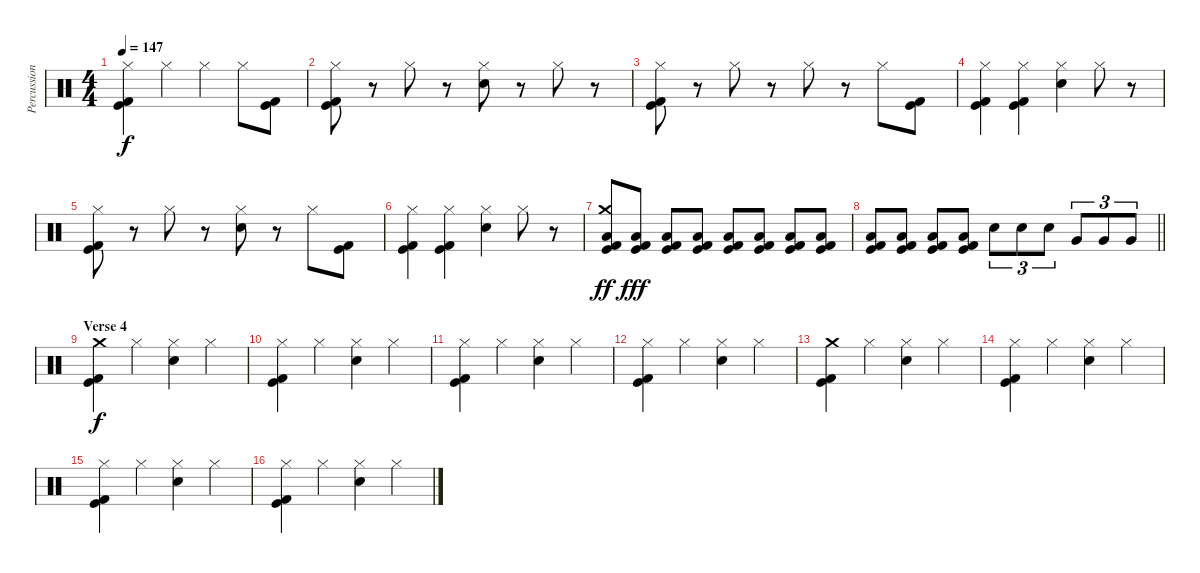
\track ("Percussion" "Percussion") {instrument percussion}
\staff {score}
\articulation defaults
\ts (4 4)
\tempo 147
\clef neutral
\ks c
("Hi-Hat (closed)" "Kick (hit) 2" "Kick (hit)").4{dy f} "Hi-Hat (closed)".4 "Hi-Hat (closed)".4 "Hi-Hat (closed)".8 ("Kick (hit) 2" "Kick (hit)").8 |
("Hi-Hat (closed)" "Kick (hit) 2" "Kick (hit)").8 r.8 "Hi-Hat (closed)".8 r.8 ("Hi-Hat (closed)" "Snare (hit) 2").8 r.8 "Hi-Hat (closed)".8 r.8 |
("Hi-Hat (closed)" "Kick (hit) 2" "Kick (hit)").8 r.8 "Hi-Hat (closed)".8 r.8 "Hi-Hat (closed)".8 r.8 "Hi-Hat (closed)".8 ("Kick (hit) 2" "Kick (hit)").8 |
("Hi-Hat (closed)" "Kick (hit) 2" "Kick (hit)").4 ("Hi-Hat (closed)" "Kick (hit) 2" "Kick (hit)").4 ("Hi-Hat (closed)" "Snare (hit) 2").4 "Hi-Hat (closed)".8 r.8 |
("Hi-Hat (closed)" "Kick (hit) 2" "Kick (hit)").8 r.8 "Hi-Hat (closed)".8 r.8 ("Hi-Hat (closed)" "Snare (hit) 2").8 r.8 "Hi-Hat (closed)".8 ("Kick (hit) 2" "Kick (hit)").8 |
("Hi-Hat (closed)" "Kick (hit) 2" "Kick (hit)").4 ("Hi-Hat (closed)" "Kick (hit) 2" "Kick (hit)").4 ("Hi-Hat (closed)" "Snare (hit) 2").4 "Hi-Hat (closed)".8 r.8 |
("Crash medium (hit)" "Low Floor Tom (hit)" "Kick (hit) 2" "Kick (hit)").8{dy ff} ("Low Floor Tom (hit)" "Kick (hit) 2" "Kick (hit)").8{dy fff} ("Low Floor Tom (hit)" "Kick (hit) 2" "Kick (hit)").8 ("Low Floor Tom (hit)" "Kick (hit) 2" "Kick (hit)").8 ("Low Floor Tom (hit)" "Kick (hit) 2" "Kick (hit)").8 ("Low Floor Tom (hit)" "Kick (hit) 2" "Kick (hit)").8 ("Low Floor Tom (hit)" "Kick (hit) 2" "Kick (hit)").8 ("Low Floor Tom (hit)" "Kick (hit) 2" "Kick (hit)").8 |
\barLineRight lightlight
("Low Floor Tom (hit)" "Kick (hit) 2" "Kick (hit)").8 ("Low Floor Tom (hit)" "Kick (hit) 2" "Kick (hit)").8 ("Low Floor Tom (hit)" "Kick (hit) 2" "Kick (hit)").8 ("Low Floor Tom (hit)" "Kick (hit) 2" "Kick (hit)").8 "Snare (hit) 2".8{tu (3 2)} "Snare (hit) 2".8{tu (3 2)} "Snare (hit) 2".8{tu (3 2)} "Very Low Tom (hit)".8{tu (3 2)} "Very Low Tom (hit)".8{tu (3 2)} "Very Low Tom (hit)".8{tu (3 2)} |
\section ("" "Verse 4")
("Crash medium (hit)" "Kick (hit) 2" "Kick (hit)").4{dy f} "Hi-Hat (closed)".4 ("Hi-Hat (closed)" "Snare (hit) 2").4 "Hi-Hat (closed)".4 |
("Hi-Hat (closed)" "Kick (hit) 2" "Kick (hit)").4 "Hi-Hat (closed)".4 ("Hi-Hat (closed)" "Snare (hit) 2").4 "Hi-Hat (closed)".4 |
("Hi-Hat (closed)" "Kick (hit) 2" "Kick (hit)").4 "Hi-Hat (closed)".4 ("Hi-Hat (closed)" "Snare (hit) 2").4 "Hi-Hat (closed)".4 |
("Hi-Hat (closed)" "Kick (hit) 2" "Kick (hit)").4 "Hi-Hat (closed)".4 ("Hi-Hat (closed)" "Snare (hit) 2").4 "Hi-Hat (closed)".4 |
("Crash medium (hit)" "Kick (hit) 2" "Kick (hit)").4 "Hi-Hat (closed)".4 ("Hi-Hat (closed)" "Snare (hit) 2").4 "Hi-Hat (closed)".4 |
("Hi-Hat (closed)" "Kick (hit) 2" "Kick (hit)").4 "Hi-Hat (closed)".4 ("Hi-Hat (closed)" "Snare (hit) 2").4 "Hi-Hat (closed)".4 |
("Hi-Hat (closed)" "Kick (hit) 2" "Kick (hit)").4 "Hi-Hat (closed)".4 ("Hi-Hat (closed)" "Snare (hit) 2").4 "Hi-Hat (closed)".4 |
("Hi-Hat (closed)" "Kick (hit) 2" "Kick (hit)").4 "Hi-Hat (closed)".4 ("Hi-Hat (closed)" "Snare (hit) 2").4 "Hi-Hat (closed)".4
